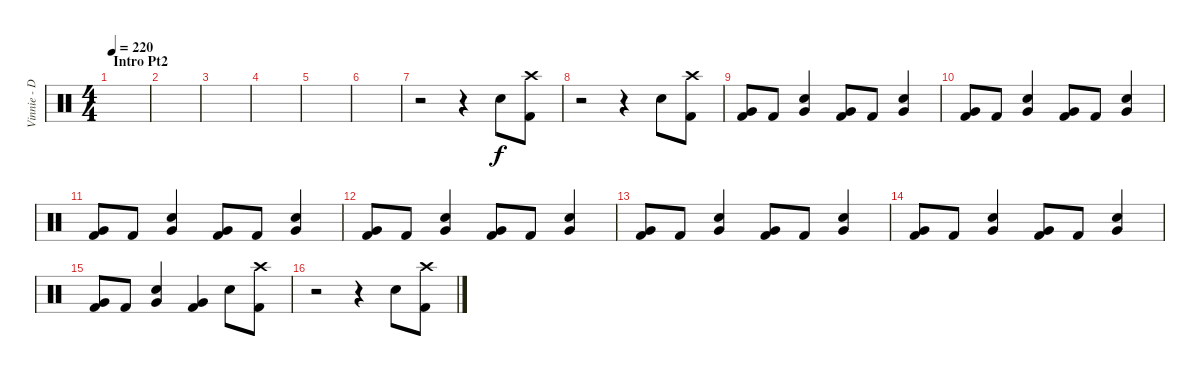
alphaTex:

\track ("Vinnie - Drums" "Vinnie - D") {instrument percussion}
\staff {score}
\articulation defaults
\ts (4 4)
\section ("" "Intro Pt2")
\tempo 220
\clef neutral
\ks c
|
|
|
|
|
|
r.2 r.4 "Electric Snare (hit)".8 ("Crash high (hit)" "Kick (hit) 2").8 |
r.2 r.4 "Electric Snare (hit)".8 ("Crash high (hit)" "Kick (hit) 2").8 |
("Very Low Tom (hit)" "Kick (hit) 2").8 "Kick (hit) 2".8 ("Very Low Tom (hit)" "Electric Snare (hit)").4 ("Very Low Tom (hit)" "Kick (hit) 2").8 "Kick (hit) 2".8 ("Very Low Tom (hit)" "Electric Snare (hit)").4 |
("Very Low Tom (hit)" "Kick (hit) 2").8 "Kick (hit) 2".8 ("Very Low Tom (hit)" "Electric Snare (hit)").4 ("Very Low Tom (hit)" "Kick (hit) 2").8 "Kick (hit) 2".8 ("Very Low Tom (hit)" "Electric Snare (hit)").4 |
("Very Low Tom (hit)" "Kick (hit) 2").8 "Kick (hit) 2".8 ("Very Low Tom (hit)" "Electric Snare (hit)").4 ("Very Low Tom (hit)" "Kick (hit) 2").8 "Kick (hit) 2".8 ("Very Low Tom (hit)" "Electric Snare (hit)").4 |
("Very Low Tom (hit)" "Kick (hit) 2").8 "Kick (hit) 2".8 ("Very Low Tom (hit)" "Electric Snare (hit)").4 ("Very Low Tom (hit)" "Kick (hit) 2").8 "Kick (hit) 2".8 ("Very Low Tom (hit)" "Electric Snare (hit)").4 |
("Very Low Tom (hit)" "Kick (hit) 2").8 "Kick (hit) 2".8 ("Very Low Tom (hit)" "Electric Snare (hit)").4 ("Very Low Tom (hit)" "Kick (hit) 2").8 "Kick (hit) 2".8 ("Very Low Tom (hit)" "Electric Snare (hit)").4 |
("Very Low Tom (hit)" "Kick (hit) 2").8 "Kick (hit) 2".8 ("Very Low Tom (hit)" "Electric Snare (hit)").4 ("Very Low Tom (hit)" "Kick (hit) 2").8 "Kick (hit) 2".8 ("Very Low Tom (hit)" "Electric Snare (hit)").4 |
("Very Low Tom (hit)" "Kick (hit) 2").8 "Kick (hit) 2".8 ("Very Low Tom (hit)" "Electric Snare (hit)").4 ("Very Low Tom (hit)" "Kick (hit) 2").4 "Electric Snare (hit)".8 ("Crash high (hit)" "Kick (hit) 2").8 |
r.2 r.4 "Electric Snare (hit)".8 ("Crash high (hit)" "Kick (hit) 2").8
